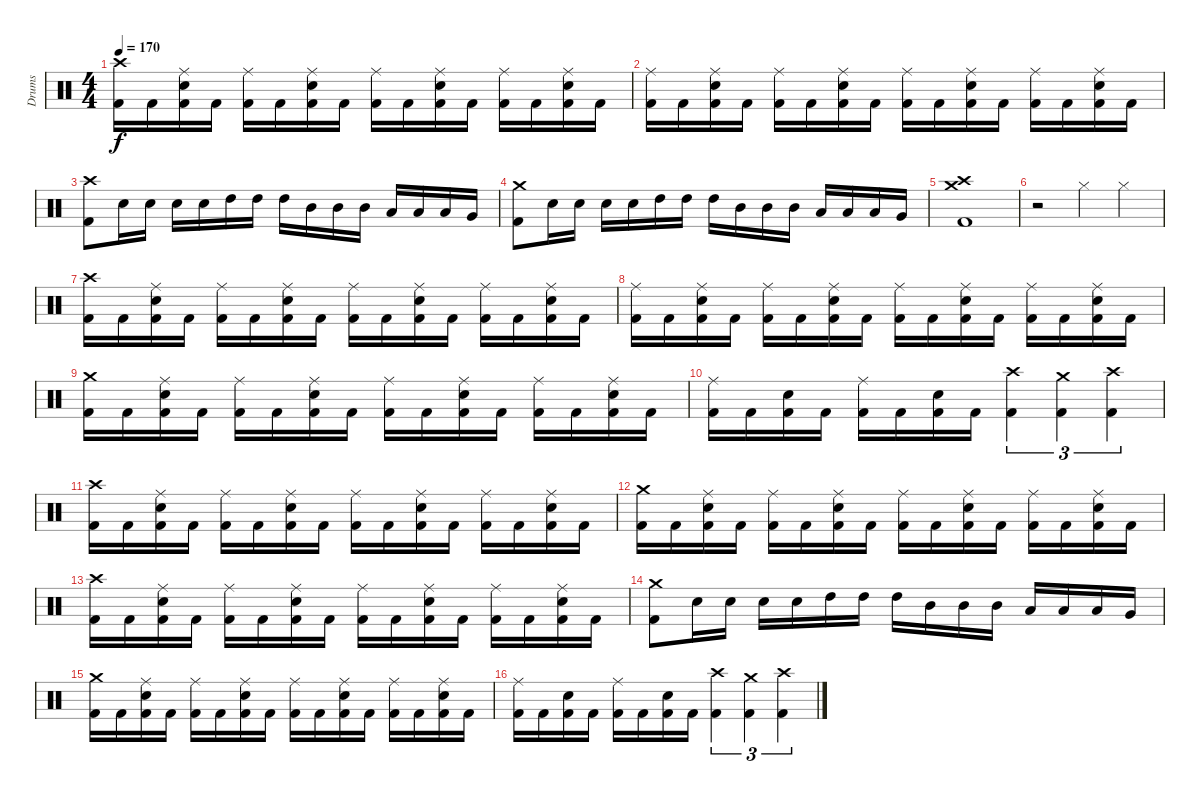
\track ("Drums" "Drums") {instrument percussion}
\staff {score}
\articulation defaults
\ts (4 4)
\tempo 170
\clef neutral
\ks c
("Crash high (hit)" "Kick (hit) 2").16{dy f} "Kick (hit) 2".16 ("Ride (middle)" "Snare (hit) 2" "Kick (hit) 2").16 "Kick (hit) 2".16 ("Ride (middle)" "Kick (hit) 2").16 "Kick (hit) 2".16 ("Ride (middle)" "Snare (hit) 2" "Kick (hit) 2").16 "Kick (hit) 2".16 ("Ride (middle)" "Kick (hit) 2").16 "Kick (hit) 2".16 ("Ride (middle)" "Snare (hit) 2" "Kick (hit) 2").16 "Kick (hit) 2".16 ("Ride (middle)" "Kick (hit) 2").16 "Kick (hit) 2".16 ("Ride (middle)" "Snare (hit) 2" "Kick (hit) 2").16 "Kick (hit) 2".16 |
("Ride (middle)" "Kick (hit) 2").16 "Kick (hit) 2".16 ("Ride (middle)" "Snare (hit) 2" "Kick (hit) 2").16 "Kick (hit) 2".16 ("Ride (middle)" "Kick (hit) 2").16 "Kick (hit) 2".16 ("Ride (middle)" "Snare (hit) 2" "Kick (hit) 2").16 "Kick (hit) 2".16 ("Ride (middle)" "Kick (hit) 2").16 "Kick (hit) 2".16 ("Ride (middle)" "Snare (hit) 2" "Kick (hit) 2").16 "Kick (hit) 2".16 ("Ride (middle)" "Kick (hit) 2").16 "Kick (hit) 2".16 ("Ride (middle)" "Snare (hit) 2" "Kick (hit) 2").16 "Kick (hit) 2".16 |
("Crash high (hit)" "Kick (hit) 2").8 "Snare (hit) 2".16 "Snare (hit) 2".16 "Snare (hit) 2".16 "Snare (hit) 2".16 "High Tom (hit)".16 "High Tom (hit)".16 "High Tom (hit)".16 "Mid Tom (hit)".16 "Mid Tom (hit)".16 "Mid Tom (hit)".16 "Low Tom (hit)".16 "Low Tom (hit)".16 "Low Tom (hit)".16 "Very Low Tom (hit)".16 |
("Crash medium (hit)" "Kick (hit) 2").8 "Snare (hit) 2".16 "Snare (hit) 2".16 "Snare (hit) 2".16 "Snare (hit) 2".16 "High Tom (hit)".16 "High Tom (hit)".16 "High Tom (hit)".16 "Mid Tom (hit)".16 "Mid Tom (hit)".16 "Mid Tom (hit)".16 "Low Tom (hit)".16 "Low Tom (hit)".16 "Low Tom (hit)".16 "Very Low Tom (hit)".16 |
("Crash medium (hit)" "Crash high (hit)" "Kick (hit) 2").1 |
r.2 "Hi-Hat (closed)".4 "Hi-Hat (closed)".4 |
("Crash high (hit)" "Kick (hit) 2").16 "Kick (hit) 2".16 ("Ride (middle)" "Snare (hit) 2" "Kick (hit) 2").16 "Kick (hit) 2".16 ("Ride (middle)" "Kick (hit) 2").16 "Kick (hit) 2".16 ("Ride (middle)" "Snare (hit) 2" "Kick (hit) 2").16 "Kick (hit) 2".16 ("Ride (middle)" "Kick (hit) 2").16 "Kick (hit) 2".16 ("Ride (middle)" "Snare (hit) 2" "Kick (hit) 2").16 "Kick (hit) 2".16 ("Ride (middle)" "Kick (hit) 2").16 "Kick (hit) 2".16 ("Ride (middle)" "Snare (hit) 2" "Kick (hit) 2").16 "Kick (hit) 2".16 |
("Ride (middle)" "Kick (hit) 2").16 "Kick (hit) 2".16 ("Ride (middle)" "Snare (hit) 2" "Kick (hit) 2").16 "Kick (hit) 2".16 ("Ride (middle)" "Kick (hit) 2").16 "Kick (hit) 2".16 ("Ride (middle)" "Snare (hit) 2" "Kick (hit) 2").16 "Kick (hit) 2".16 ("Ride (middle)" "Kick (hit) 2").16 "Kick (hit) 2".16 ("Ride (middle)" "Snare (hit) 2" "Kick (hit) 2").16 "Kick (hit) 2".16 ("Ride (middle)" "Kick (hit) 2").16 "Kick (hit) 2".16 ("Ride (middle)" "Snare (hit) 2" "Kick (hit) 2").16 "Kick (hit) 2".16 |
("Crash medium (hit)" "Kick (hit) 2").16 "Kick (hit) 2".16 ("Ride (middle)" "Snare (hit) 2" "Kick (hit) 2").16 "Kick (hit) 2".16 ("Ride (middle)" "Kick (hit) 2").16 "Kick (hit) 2".16 ("Ride (middle)" "Snare (hit) 2" "Kick (hit) 2").16 "Kick (hit) 2".16 ("Ride (middle)" "Kick (hit) 2").16 "Kick (hit) 2".16 ("Ride (middle)" "Snare (hit) 2" "Kick (hit) 2").16 "Kick (hit) 2".16 ("Ride (middle)" "Kick (hit) 2").16 "Kick (hit) 2".16 ("Ride (middle)" "Snare (hit) 2" "Kick (hit) 2").16 "Kick (hit) 2".16 |
("Ride (middle)" "Kick (hit) 2").16 "Kick (hit) 2".16 ("Snare (hit) 2" "Kick (hit) 2").16 "Kick (hit) 2".16 ("Ride (middle)" "Kick (hit) 2").16 "Kick (hit) 2".16 ("Snare (hit) 2" "Kick (hit) 2").16 "Kick (hit) 2".16 ("Crash high (hit)" "Kick (hit) 2").4{tu (3 2)} ("Crash medium (hit)" "Kick (hit) 2").4{tu (3 2)} ("Crash high (hit)" "Kick (hit) 2").4{tu (3 2)} |
("Crash high (hit)" "Kick (hit) 2").16 "Kick (hit) 2".16 ("Ride (middle)" "Snare (hit) 2" "Kick (hit) 2").16 "Kick (hit) 2".16 ("Ride (middle)" "Kick (hit) 2").16 "Kick (hit) 2".16 ("Ride (middle)" "Snare (hit) 2" "Kick (hit) 2").16 "Kick (hit) 2".16 ("Ride (middle)" "Kick (hit) 2").16 "Kick (hit) 2".16 ("Ride (middle)" "Snare (hit) 2" "Kick (hit) 2").16 "Kick (hit) 2".16 ("Ride (middle)" "Kick (hit) 2").16 "Kick (hit) 2".16 ("Ride (middle)" "Snare (hit) 2" "Kick (hit) 2").16 "Kick (hit) 2".16 |
("Crash medium (hit)" "Kick (hit) 2").16 "Kick (hit) 2".16 ("Ride (middle)" "Snare (hit) 2" "Kick (hit) 2").16 "Kick (hit) 2".16 ("Ride (middle)" "Kick (hit) 2").16 "Kick (hit) 2".16 ("Ride (middle)" "Snare (hit) 2" "Kick (hit) 2").16 "Kick (hit) 2".16 ("Ride (middle)" "Kick (hit) 2").16 "Kick (hit) 2".16 ("Ride (middle)" "Snare (hit) 2" "Kick (hit) 2").16 "Kick (hit) 2".16 ("Ride (middle)" "Kick (hit) 2").16 "Kick (hit) 2".16 ("Ride (middle)" "Snare (hit) 2" "Kick (hit) 2").16 "Kick (hit) 2".16 |
("Crash high (hit)" "Kick (hit) 2").16 "Kick (hit) 2".16 ("Ride (middle)" "Snare (hit) 2" "Kick (hit) 2").16 "Kick (hit) 2".16 ("Ride (middle)" "Kick (hit) 2").16 "Kick (hit) 2".16 ("Ride (middle)" "Snare (hit) 2" "Kick (hit) 2").16 "Kick (hit) 2".16 ("Ride (middle)" "Kick (hit) 2").16 "Kick (hit) 2".16 ("Ride (middle)" "Snare (hit) 2" "Kick (hit) 2").16 "Kick (hit) 2".16 ("Ride (middle)" "Kick (hit) 2").16 "Kick (hit) 2".16 ("Ride (middle)" "Snare (hit) 2" "Kick (hit) 2").16 "Kick (hit) 2".16 |
("Crash medium (hit)" "Kick (hit) 2").8 "Snare (hit) 2".16 "Snare (hit) 2".16 "Snare (hit) 2".16 "Snare (hit) 2".16 "High Tom (hit)".16 "High Tom (hit)".16 "High Tom (hit)".16 "Mid Tom (hit)".16 "Mid Tom (hit)".16 "Mid Tom (hit)".16 "Low Tom (hit)".16 "Low Tom (hit)".16 "Low Tom (hit)".16 "Very Low Tom (hit)".16 |
("Crash medium (hit)" "Kick (hit) 2").16 "Kick (hit) 2".16 ("Ride (middle)" "Snare (hit) 2" "Kick (hit) 2").16 "Kick (hit) 2".16 ("Ride (middle)" "Kick (hit) 2").16 "Kick (hit) 2".16 ("Ride (middle)" "Snare (hit) 2" "Kick (hit) 2").16 "Kick (hit) 2".16 ("Ride (middle)" "Kick (hit) 2").16 "Kick (hit) 2".16 ("Ride (middle)" "Snare (hit) 2" "Kick (hit) 2").16 "Kick (hit) 2".16 ("Ride (middle)" "Kick (hit) 2").16 "Kick (hit) 2".16 ("Ride (middle)" "Snare (hit) 2" "Kick (hit) 2").16 "Kick (hit) 2".16 |
("Ride (middle)" "Kick (hit) 2").16 "Kick (hit) 2".16 ("Snare (hit) 2" "Kick (hit) 2").16 "Kick (hit) 2".16 ("Ride (middle)" "Kick (hit) 2").16 "Kick (hit) 2".16 ("Snare (hit) 2" "Kick (hit) 2").16 "Kick (hit) 2".16 ("Crash high (hit)" "Kick (hit) 2").4{tu (3 2)} ("Crash medium (hit)" "Kick (hit) 2").4{tu (3 2)} ("Crash high (hit)" "Kick (hit) 2").4{tu (3 2)}
